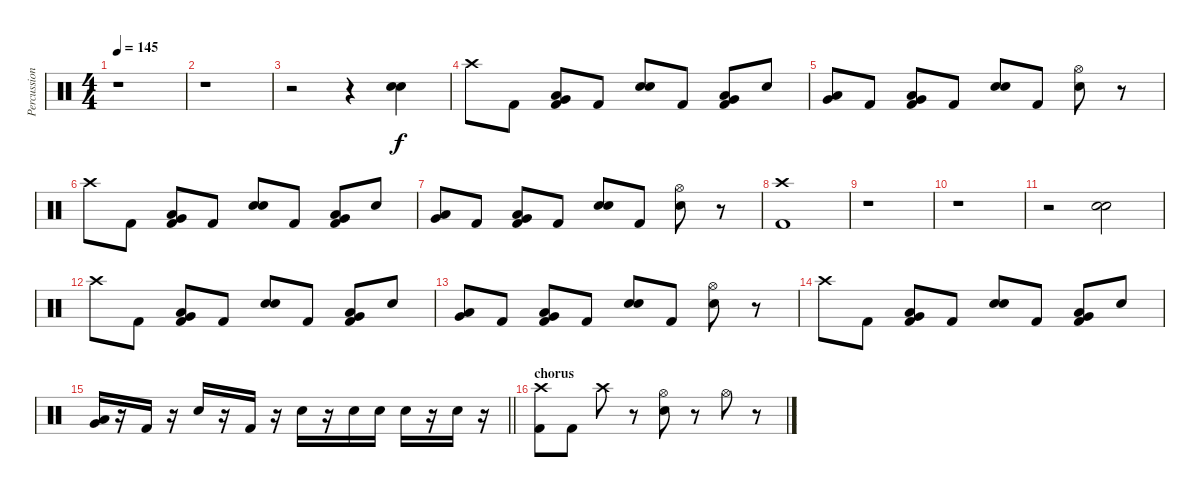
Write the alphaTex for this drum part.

\track ("Percussion" "Percussion") {instrument percussion}
\staff {score}
\articulation defaults
\ts (4 4)
\tempo 145
\clef neutral
\ks c
r.1{dy f} |
r.1 |
r.2 r.4 ("Electric Snare (hit)" "Electric Snare (hit)").4 |
"Crash high (hit)".8 "Kick (hit) 2".8 ("Low Tom (hit)" "Very Low Tom (hit)" "Kick (hit) 2").8 "Kick (hit) 2".8 ("Electric Snare (hit)" "Electric Snare (hit)").8 "Kick (hit) 2".8 ("Low Tom (hit)" "Very Low Tom (hit)" "Kick (hit) 2").8 "Electric Snare (hit)".8 |
("Low Tom (hit)" "Very Low Tom (hit)").8 "Kick (hit) 2".8 ("Low Tom (hit)" "Very Low Tom (hit)" "Kick (hit) 2").8 "Kick (hit) 2".8 ("Electric Snare (hit)" "Electric Snare (hit)").8 "Kick (hit) 2".8 ("Hi-Hat (open)" "Electric Snare (hit)").8 r.8 |
"Crash high (hit)".8 "Kick (hit) 2".8 ("Low Tom (hit)" "Very Low Tom (hit)" "Kick (hit) 2").8 "Kick (hit) 2".8 ("Electric Snare (hit)" "Electric Snare (hit)").8 "Kick (hit) 2".8 ("Low Tom (hit)" "Very Low Tom (hit)" "Kick (hit) 2").8 "Electric Snare (hit)".8 |
("Low Tom (hit)" "Very Low Tom (hit)").8 "Kick (hit) 2".8 ("Low Tom (hit)" "Very Low Tom (hit)" "Kick (hit) 2").8 "Kick (hit) 2".8 ("Electric Snare (hit)" "Electric Snare (hit)").8 "Kick (hit) 2".8 ("Hi-Hat (open)" "Electric Snare (hit)").8 r.8 |
("Crash high (hit)" "Kick (hit) 2").1 |
r.1 |
r.1 |
r.2 ("Electric Snare (hit)" "Electric Snare (hit)").2 |
"Crash high (hit)".8 "Kick (hit) 2".8 ("Low Tom (hit)" "Very Low Tom (hit)" "Kick (hit) 2").8 "Kick (hit) 2".8 ("Electric Snare (hit)" "Electric Snare (hit)").8 "Kick (hit) 2".8 ("Low Tom (hit)" "Very Low Tom (hit)" "Kick (hit) 2").8 "Electric Snare (hit)".8 |
("Low Tom (hit)" "Very Low Tom (hit)").8 "Kick (hit) 2".8 ("Low Tom (hit)" "Very Low Tom (hit)" "Kick (hit) 2").8 "Kick (hit) 2".8 ("Electric Snare (hit)" "Electric Snare (hit)").8 "Kick (hit) 2".8 ("Hi-Hat (open)" "Electric Snare (hit)").8 r.8 |
"Crash high (hit)".8 "Kick (hit) 2".8 ("Low Tom (hit)" "Very Low Tom (hit)" "Kick (hit) 2").8 "Kick (hit) 2".8 ("Electric Snare (hit)" "Electric Snare (hit)").8 "Kick (hit) 2".8 ("Low Tom (hit)" "Very Low Tom (hit)" "Kick (hit) 2").8 "Electric Snare (hit)".8 |
\barLineRight lightlight
("Low Tom (hit)" "Very Low Tom (hit)").16 r.16 "Kick (hit) 2".16 r.16 "Electric Snare (hit)".16 r.16 "Kick (hit) 2".16 r.16 "Electric Snare (hit)".16 r.16 "Electric Snare (hit)".16 "Electric Snare (hit)".16 "Electric Snare (hit)".16 r.16 "Electric Snare (hit)".16 r.16 |
\section ("" "chorus")
("Crash high (hit)" "Kick (hit) 2").8 "Kick (hit) 2".8 "Crash high (hit)".8 r.8 ("Hi-Hat (open)" "Electric Snare (hit)").8 r.8 "Hi-Hat (open)".8 r.8
